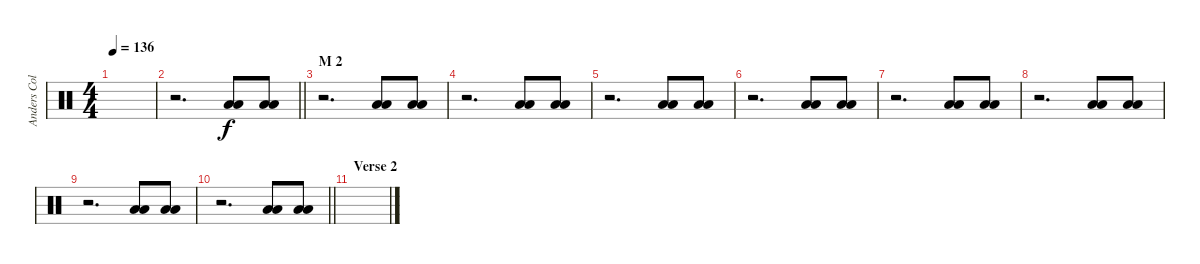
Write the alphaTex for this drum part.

\track ("Anders Colsefini" "Anders Col") {instrument percussion}
\staff {score}
\articulation defaults
\ts (4 4)
\tempo 136
\clef neutral
\ks c
|
\barLineRight lightlight
r.2{d} ("Low Floor Tom (hit)" "Low Floor Tom (hit)").8 ("Low Floor Tom (hit)" "Low Floor Tom (hit)").8 |
\section ("" "M 2")
r.2{d} ("Low Floor Tom (hit)" "Low Floor Tom (hit)").8 ("Low Floor Tom (hit)" "Low Floor Tom (hit)").8 |
r.2{d} ("Low Floor Tom (hit)" "Low Floor Tom (hit)").8 ("Low Floor Tom (hit)" "Low Floor Tom (hit)").8 |
r.2{d} ("Low Floor Tom (hit)" "Low Floor Tom (hit)").8 ("Low Floor Tom (hit)" "Low Floor Tom (hit)").8 |
r.2{d} ("Low Floor Tom (hit)" "Low Floor Tom (hit)").8 ("Low Floor Tom (hit)" "Low Floor Tom (hit)").8 |
r.2{d} ("Low Floor Tom (hit)" "Low Floor Tom (hit)").8 ("Low Floor Tom (hit)" "Low Floor Tom (hit)").8 |
r.2{d} ("Low Floor Tom (hit)" "Low Floor Tom (hit)").8 ("Low Floor Tom (hit)" "Low Floor Tom (hit)").8 |
r.2{d} ("Low Floor Tom (hit)" "Low Floor Tom (hit)").8 ("Low Floor Tom (hit)" "Low Floor Tom (hit)").8 |
\barLineRight lightlight
r.2{d} ("Low Floor Tom (hit)" "Low Floor Tom (hit)").8 ("Low Floor Tom (hit)" "Low Floor Tom (hit)").8 |
\section ("" "Verse 2")
